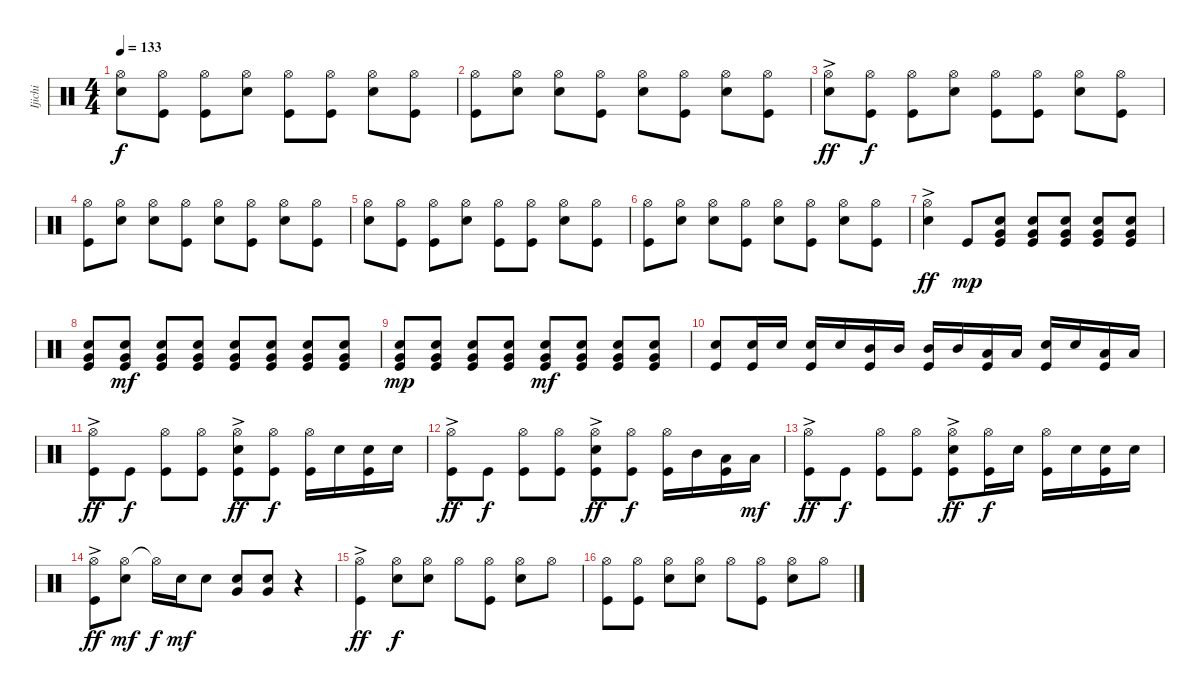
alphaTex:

\track ("Ijichi" "Ijichi") {instrument percussion}
\staff {score}
\articulation defaults
\ts (4 4)
\tempo 133
\clef neutral
\ks c
("Hi-Hat (open)" "Snare (hit) 2").8{dy f} ("Hi-Hat (open)" "Kick (hit)").8 ("Hi-Hat (open)" "Kick (hit)").8 ("Hi-Hat (open)" "Snare (hit) 2").8 ("Hi-Hat (open)" "Kick (hit)").8 ("Hi-Hat (open)" "Kick (hit)").8 ("Hi-Hat (open)" "Snare (hit) 2").8 ("Hi-Hat (open)" "Kick (hit)").8 |
("Hi-Hat (open)" "Kick (hit)").8 ("Hi-Hat (open)" "Snare (hit) 2").8 ("Hi-Hat (open)" "Snare (hit) 2").8 ("Hi-Hat (open)" "Kick (hit)").8 ("Hi-Hat (open)" "Snare (hit) 2").8 ("Hi-Hat (open)" "Kick (hit)").8 ("Hi-Hat (open)" "Snare (hit) 2").8 ("Hi-Hat (open)" "Kick (hit)").8 |
("Hi-Hat (open)"{ac} "Snare (hit) 2").8{dy ff} ("Hi-Hat (open)" "Kick (hit)").8{dy f} ("Hi-Hat (open)" "Kick (hit)").8 ("Hi-Hat (open)" "Snare (hit) 2").8 ("Hi-Hat (open)" "Kick (hit)").8 ("Hi-Hat (open)" "Kick (hit)").8 ("Hi-Hat (open)" "Snare (hit) 2").8 ("Hi-Hat (open)" "Kick (hit)").8 |
("Hi-Hat (open)" "Kick (hit)").8 ("Hi-Hat (open)" "Snare (hit) 2").8 ("Hi-Hat (open)" "Snare (hit) 2").8 ("Hi-Hat (open)" "Kick (hit)").8 ("Hi-Hat (open)" "Snare (hit) 2").8 ("Hi-Hat (open)" "Kick (hit)").8 ("Hi-Hat (open)" "Snare (hit) 2").8 ("Hi-Hat (open)" "Kick (hit)").8 |
("Hi-Hat (open)" "Snare (hit) 2").8 ("Hi-Hat (open)" "Kick (hit)").8 ("Hi-Hat (open)" "Kick (hit)").8 ("Hi-Hat (open)" "Snare (hit) 2").8 ("Hi-Hat (open)" "Kick (hit)").8 ("Hi-Hat (open)" "Kick (hit)").8 ("Hi-Hat (open)" "Snare (hit) 2").8 ("Hi-Hat (open)" "Kick (hit)").8 |
("Hi-Hat (open)" "Kick (hit)").8 ("Hi-Hat (open)" "Snare (hit) 2").8 ("Hi-Hat (open)" "Snare (hit) 2").8 ("Hi-Hat (open)" "Kick (hit)").8 ("Hi-Hat (open)" "Snare (hit) 2").8 ("Hi-Hat (open)" "Kick (hit)").8 ("Hi-Hat (open)" "Snare (hit) 2").8 ("Hi-Hat (open)" "Kick (hit)").8 |
("Hi-Hat (open)"{ac} "Snare (hit) 2").4{dy ff} "Kick (hit)".8{dy mp} ("Snare (hit) 2" "Very Low Tom (hit)" "Kick (hit)").8 ("Snare (hit) 2" "Very Low Tom (hit)" "Kick (hit)").8 ("Snare (hit) 2" "Very Low Tom (hit)" "Kick (hit)").8 ("Snare (hit) 2" "Very Low Tom (hit)" "Kick (hit)").8 ("Snare (hit) 2" "Very Low Tom (hit)" "Kick (hit)").8 |
("Snare (hit) 2" "Very Low Tom (hit)" "Kick (hit)").8 ("Snare (hit) 2" "Very Low Tom (hit)" "Kick (hit)").8{dy mf} ("Snare (hit) 2" "Very Low Tom (hit)" "Kick (hit)").8 ("Snare (hit) 2" "Very Low Tom (hit)" "Kick (hit)").8 ("Snare (hit) 2" "Very Low Tom (hit)" "Kick (hit)").8 ("Snare (hit) 2" "Very Low Tom (hit)" "Kick (hit)").8 ("Snare (hit) 2" "Very Low Tom (hit)" "Kick (hit)").8 ("Snare (hit) 2" "Very Low Tom (hit)" "Kick (hit)").8 |
("Snare (hit) 2" "Very Low Tom (hit)" "Kick (hit)").8{dy mp} ("Snare (hit) 2" "Very Low Tom (hit)" "Kick (hit)").8 ("Snare (hit) 2" "Very Low Tom (hit)" "Kick (hit)").8 ("Snare (hit) 2" "Very Low Tom (hit)" "Kick (hit)").8 ("Snare (hit) 2" "Very Low Tom (hit)" "Kick (hit)").8{dy mf} ("Snare (hit) 2" "Very Low Tom (hit)" "Kick (hit)").8 ("Snare (hit) 2" "Very Low Tom (hit)" "Kick (hit)").8 ("Snare (hit) 2" "Very Low Tom (hit)" "Kick (hit)").8 |
("Snare (hit) 2" "Kick (hit)").8 ("Snare (hit) 2" "Kick (hit)").16 "Snare (hit) 2".16 ("Snare (hit) 2" "Kick (hit)").16 "Snare (hit) 2".16 ("Mid Tom (hit)" "Kick (hit)").16 "Mid Tom (hit)".16 ("Mid Tom (hit)" "Kick (hit)").16 "Mid Tom (hit)".16 ("Low Tom (hit)" "Kick (hit)").16 "Low Tom (hit)".16 ("Snare (hit) 2" "Kick (hit)").16 "Snare (hit) 2".16 ("Low Tom (hit)" "Kick (hit)").16 "Low Tom (hit)".16 |
("Hi-Hat (open)"{ac} "Kick (hit)").8{dy ff} "Kick (hit)".8{dy f} ("Hi-Hat (open)" "Kick (hit)").8 ("Hi-Hat (open)" "Kick (hit)").8 ("Hi-Hat (open)"{ac} "Snare (hit) 2" "Kick (hit)").8{dy ff} ("Hi-Hat (open)" "Kick (hit)").8{dy f} ("Hi-Hat (open)" "Kick (hit)").16 "Snare (hit) 2".16 ("Snare (hit) 2" "Kick (hit)").16 "Snare (hit) 2".16 |
("Hi-Hat (open)"{ac} "Kick (hit)").8{dy ff} "Kick (hit)".8{dy f} ("Hi-Hat (open)" "Kick (hit)").8 ("Hi-Hat (open)" "Kick (hit)").8 ("Hi-Hat (open)"{ac} "Snare (hit) 2" "Kick (hit)").8{dy ff} ("Hi-Hat (open)" "Kick (hit)").8{dy f} ("Hi-Hat (open)" "Kick (hit)").16 "Mid Tom (hit)".16 ("Low Tom (hit)" "Kick (hit)").16 "Low Tom (hit)".16{dy mf} |
("Hi-Hat (open)"{ac} "Kick (hit)").8{dy ff} "Kick (hit)".8{dy f} ("Hi-Hat (open)" "Kick (hit)").8 ("Hi-Hat (open)" "Kick (hit)").8 ("Hi-Hat (open)"{ac} "Snare (hit) 2" "Kick (hit)").8{dy ff} ("Hi-Hat (open)" "Kick (hit)").16{dy f} "Snare (hit) 2".16 ("Hi-Hat (open)" "Kick (hit)").16 "Snare (hit) 2".16 ("Snare (hit) 2" "Kick (hit)").16 "Snare (hit) 2".16 |
("Hi-Hat (open)"{ac} "Kick (hit)").8{dy ff} ("Hi-Hat (open)" "Snare (hit) 2").8{dy mf} "Hi-Hat (open)"{t}.16{dy f} "Snare (hit) 2".16{dy mf} "Snare (hit) 2".8 ("Snare (hit) 2" "Very Low Tom (hit)").8 ("Snare (hit) 2" "Very Low Tom (hit)").8 r.4 |
("Hi-Hat (open)"{ac} "Kick (hit)").4{dy ff} ("Hi-Hat (open)" "Snare (hit) 2").8{dy f} ("Hi-Hat (open)" "Snare (hit) 2").8 "Hi-Hat (open)".8 ("Hi-Hat (open)" "Kick (hit)").8 ("Hi-Hat (open)" "Snare (hit) 2").8 "Hi-Hat (open)".8 |
("Hi-Hat (open)" "Kick (hit)").8 ("Hi-Hat (open)" "Kick (hit)").8 ("Hi-Hat (open)" "Snare (hit) 2").8 ("Hi-Hat (open)" "Snare (hit) 2").8 "Hi-Hat (open)".8 ("Hi-Hat (open)" "Kick (hit)").8 ("Hi-Hat (open)" "Snare (hit) 2").8 "Hi-Hat (open)".8
